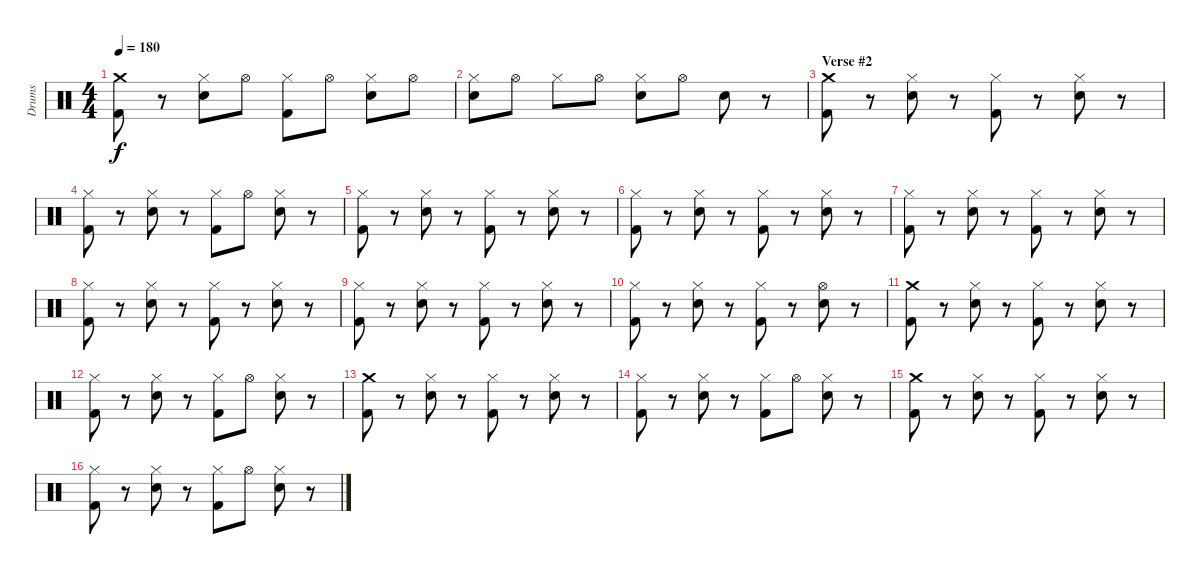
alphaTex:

\track ("Drums" "Drums") {instrument percussion}
\staff {score}
\articulation defaults
\ts (4 4)
\tempo 180
\clef neutral
\ks c
("Kick (hit) 2" "Crash medium (hit)").8{dy f} r.8 ("Hi-Hat (closed)" "Electric Snare (hit)").8 "Hi-Hat (open)".8 ("Hi-Hat (closed)" "Kick (hit) 2").8 "Hi-Hat (open)".8 ("Hi-Hat (closed)" "Electric Snare (hit)").8 "Hi-Hat (open)".8 |
("Hi-Hat (closed)" "Electric Snare (hit)").8 "Hi-Hat (open)".8 "Hi-Hat (closed)".8 "Hi-Hat (open)".8 ("Hi-Hat (closed)" "Electric Snare (hit)").8 "Hi-Hat (open)".8 "Electric Snare (hit)".8 r.8 |
\section ("" "Verse #2")
("Kick (hit) 2" "Crash medium (hit)").8 r.8 ("Hi-Hat (closed)" "Electric Snare (hit)").8 r.8 ("Hi-Hat (closed)" "Kick (hit) 2").8 r.8 ("Hi-Hat (closed)" "Electric Snare (hit)").8 r.8 |
("Hi-Hat (closed)" "Kick (hit) 2").8 r.8 ("Hi-Hat (closed)" "Electric Snare (hit)").8 r.8 ("Hi-Hat (closed)" "Kick (hit) 2").8 "Hi-Hat (open)".8 ("Hi-Hat (closed)" "Electric Snare (hit)").8 r.8 |
("Hi-Hat (closed)" "Kick (hit) 2").8 r.8 ("Hi-Hat (closed)" "Electric Snare (hit)").8 r.8 ("Hi-Hat (closed)" "Kick (hit) 2").8 r.8 ("Hi-Hat (closed)" "Electric Snare (hit)").8 r.8 |
("Hi-Hat (closed)" "Kick (hit) 2").8 r.8 ("Hi-Hat (closed)" "Electric Snare (hit)").8 r.8 ("Hi-Hat (closed)" "Kick (hit) 2").8 r.8 ("Hi-Hat (closed)" "Electric Snare (hit)").8 r.8 |
("Hi-Hat (closed)" "Kick (hit) 2").8 r.8 ("Hi-Hat (closed)" "Electric Snare (hit)").8 r.8 ("Hi-Hat (closed)" "Kick (hit) 2").8 r.8 ("Hi-Hat (closed)" "Electric Snare (hit)").8 r.8 |
("Hi-Hat (closed)" "Kick (hit) 2").8 r.8 ("Hi-Hat (closed)" "Electric Snare (hit)").8 r.8 ("Hi-Hat (closed)" "Kick (hit) 2").8 r.8 ("Hi-Hat (closed)" "Electric Snare (hit)").8 r.8 |
("Hi-Hat (closed)" "Kick (hit) 2").8 r.8 ("Hi-Hat (closed)" "Electric Snare (hit)").8 r.8 ("Hi-Hat (closed)" "Kick (hit) 2").8 r.8 ("Hi-Hat (closed)" "Electric Snare (hit)").8 r.8 |
("Hi-Hat (closed)" "Kick (hit) 2").8 r.8 ("Hi-Hat (closed)" "Electric Snare (hit)").8 r.8 ("Hi-Hat (closed)" "Kick (hit) 2").8 r.8 ("Hi-Hat (open)" "Electric Snare (hit)").8 r.8 |
("Kick (hit) 2" "Crash medium (hit)").8 r.8 ("Hi-Hat (closed)" "Electric Snare (hit)").8 r.8 ("Hi-Hat (closed)" "Kick (hit) 2").8 r.8 ("Hi-Hat (closed)" "Electric Snare (hit)").8 r.8 |
("Hi-Hat (closed)" "Kick (hit) 2").8 r.8 ("Hi-Hat (closed)" "Electric Snare (hit)").8 r.8 ("Hi-Hat (closed)" "Kick (hit) 2").8 "Hi-Hat (open)".8 ("Hi-Hat (closed)" "Electric Snare (hit)").8 r.8 |
("Kick (hit) 2" "Crash medium (hit)").8 r.8 ("Hi-Hat (closed)" "Electric Snare (hit)").8 r.8 ("Hi-Hat (closed)" "Kick (hit) 2").8 r.8 ("Hi-Hat (closed)" "Electric Snare (hit)").8 r.8 |
("Hi-Hat (closed)" "Kick (hit) 2").8 r.8 ("Hi-Hat (closed)" "Electric Snare (hit)").8 r.8 ("Hi-Hat (closed)" "Kick (hit) 2").8 "Hi-Hat (open)".8 ("Hi-Hat (closed)" "Electric Snare (hit)").8 r.8 |
("Kick (hit) 2" "Crash medium (hit)").8 r.8 ("Hi-Hat (closed)" "Electric Snare (hit)").8 r.8 ("Hi-Hat (closed)" "Kick (hit) 2").8 r.8 ("Hi-Hat (closed)" "Electric Snare (hit)").8 r.8 |
("Hi-Hat (closed)" "Kick (hit) 2").8 r.8 ("Hi-Hat (closed)" "Electric Snare (hit)").8 r.8 ("Hi-Hat (closed)" "Kick (hit) 2").8 "Hi-Hat (open)".8 ("Hi-Hat (closed)" "Electric Snare (hit)").8 r.8
